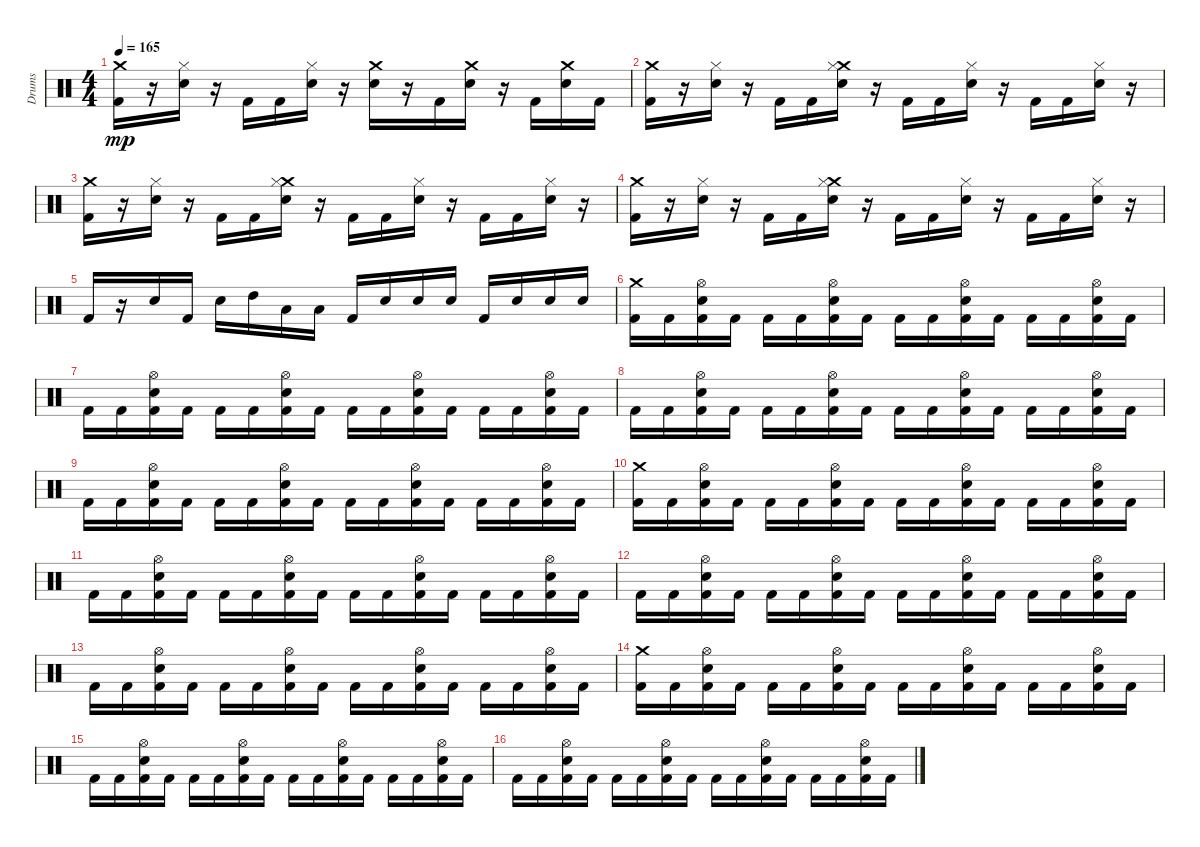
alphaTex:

\track ("Drums" "Drums") {instrument percussion}
\staff {score}
\articulation defaults
\ts (4 4)
\tempo 165
\clef neutral
\ks c
("Crash medium (hit)" "Kick (hit) 2").16{dy mp} r.16 ("Hi-Hat (closed)" "Electric Snare (hit)").16 r.16 "Kick (hit) 2".16 "Kick (hit) 2".16 ("Electric Snare (hit)" "Hi-Hat (closed)").16 r.16 ("Electric Snare (hit)" "Crash medium (hit)").16 r.16 "Kick (hit) 2".16 ("Crash medium (hit)" "Electric Snare (hit)").16 r.16 "Kick (hit) 2".16 ("Electric Snare (hit)" "Crash medium (hit)").16 "Kick (hit) 2".16 |
("Kick (hit) 2" "Crash medium (hit)").16 r.16 ("Hi-Hat (closed)" "Electric Snare (hit)").16 r.16 "Kick (hit) 2".16 "Kick (hit) 2".16 ("Crash medium (hit)" "Electric Snare (hit)" "Hi-Hat (closed)").16 r.16 "Kick (hit) 2".16 "Kick (hit) 2".16 ("Electric Snare (hit)" "Hi-Hat (closed)").16 r.16 "Kick (hit) 2".16 "Kick (hit) 2".16 ("Hi-Hat (closed)" "Electric Snare (hit)").16 r.16 |
("Crash medium (hit)" "Kick (hit) 2").16 r.16 ("Electric Snare (hit)" "Hi-Hat (closed)").16 r.16 "Kick (hit) 2".16 "Kick (hit) 2".16 ("Electric Snare (hit)" "Crash medium (hit)" "Hi-Hat (closed)").16 r.16 "Kick (hit) 2".16 "Kick (hit) 2".16 ("Hi-Hat (closed)" "Electric Snare (hit)").16 r.16 "Kick (hit) 2".16 "Kick (hit) 2".16 ("Hi-Hat (closed)" "Electric Snare (hit)").16 r.16 |
("Crash medium (hit)" "Kick (hit) 2").16 r.16 ("Hi-Hat (closed)" "Electric Snare (hit)").16 r.16 "Kick (hit) 2".16 "Kick (hit) 2".16 ("Crash medium (hit)" "Hi-Hat (closed)" "Electric Snare (hit)").16 r.16 "Kick (hit) 2".16 "Kick (hit) 2".16 ("Electric Snare (hit)" "Hi-Hat (closed)").16 r.16 "Kick (hit) 2".16 "Kick (hit) 2".16 ("Hi-Hat (closed)" "Electric Snare (hit)").16 r.16 |
"Kick (hit) 2".16 r.16 "Electric Snare (hit)".16 "Kick (hit) 2".16 "Electric Snare (hit)".16 "High Tom (hit)".16 "Low Tom (hit)".16 "Low Floor Tom (hit)".16 "Kick (hit) 2".16 "Electric Snare (hit)".16 "Electric Snare (hit)".16 "Electric Snare (hit)".16 "Kick (hit) 2".16 "Electric Snare (hit)".16 "Electric Snare (hit)".16 "Electric Snare (hit)".16 |
("Kick (hit) 2" "Crash medium (hit)").16 "Kick (hit) 2".16 ("Kick (hit) 2" "Electric Snare (hit)" "Hi-Hat (open)").16 "Kick (hit) 2".16 "Kick (hit) 2".16 "Kick (hit) 2".16 ("Kick (hit) 2" "Hi-Hat (open)" "Electric Snare (hit)").16 "Kick (hit) 2".16 "Kick (hit) 2".16 "Kick (hit) 2".16 ("Hi-Hat (open)" "Kick (hit) 2" "Electric Snare (hit)").16 "Kick (hit) 2".16 "Kick (hit) 2".16 "Kick (hit) 2".16 ("Hi-Hat (open)" "Electric Snare (hit)" "Kick (hit) 2").16 "Kick (hit) 2".16 |
"Kick (hit) 2".16 "Kick (hit) 2".16 ("Hi-Hat (open)" "Kick (hit) 2" "Electric Snare (hit)").16 "Kick (hit) 2".16 "Kick (hit) 2".16 "Kick (hit) 2".16 ("Electric Snare (hit)" "Kick (hit) 2" "Hi-Hat (open)").16 "Kick (hit) 2".16 "Kick (hit) 2".16 "Kick (hit) 2".16 ("Kick (hit) 2" "Hi-Hat (open)" "Electric Snare (hit)").16 "Kick (hit) 2".16 "Kick (hit) 2".16 "Kick (hit) 2".16 ("Kick (hit) 2" "Hi-Hat (open)" "Electric Snare (hit)").16 "Kick (hit) 2".16 |
"Kick (hit) 2".16 "Kick (hit) 2".16 ("Kick (hit) 2" "Electric Snare (hit)" "Hi-Hat (open)").16 "Kick (hit) 2".16 "Kick (hit) 2".16 "Kick (hit) 2".16 ("Hi-Hat (open)" "Kick (hit) 2" "Electric Snare (hit)").16 "Kick (hit) 2".16 "Kick (hit) 2".16 "Kick (hit) 2".16 ("Kick (hit) 2" "Electric Snare (hit)" "Hi-Hat (open)").16 "Kick (hit) 2".16 "Kick (hit) 2".16 "Kick (hit) 2".16 ("Kick (hit) 2" "Electric Snare (hit)" "Hi-Hat (open)").16 "Kick (hit) 2".16 |
"Kick (hit) 2".16 "Kick (hit) 2".16 ("Hi-Hat (open)" "Electric Snare (hit)" "Kick (hit) 2").16 "Kick (hit) 2".16 "Kick (hit) 2".16 "Kick (hit) 2".16 ("Kick (hit) 2" "Hi-Hat (open)" "Electric Snare (hit)").16 "Kick (hit) 2".16 "Kick (hit) 2".16 "Kick (hit) 2".16 ("Kick (hit) 2" "Electric Snare (hit)" "Hi-Hat (open)").16 "Kick (hit) 2".16 "Kick (hit) 2".16 "Kick (hit) 2".16 ("Hi-Hat (open)" "Kick (hit) 2" "Electric Snare (hit)").16 "Kick (hit) 2".16 |
("Kick (hit) 2" "Crash medium (hit)").16 "Kick (hit) 2".16 ("Electric Snare (hit)" "Kick (hit) 2" "Hi-Hat (open)").16 "Kick (hit) 2".16 "Kick (hit) 2".16 "Kick (hit) 2".16 ("Kick (hit) 2" "Hi-Hat (open)" "Electric Snare (hit)").16 "Kick (hit) 2".16 "Kick (hit) 2".16 "Kick (hit) 2".16 ("Electric Snare (hit)" "Kick (hit) 2" "Hi-Hat (open)").16 "Kick (hit) 2".16 "Kick (hit) 2".16 "Kick (hit) 2".16 ("Kick (hit) 2" "Hi-Hat (open)" "Electric Snare (hit)").16 "Kick (hit) 2".16 |
"Kick (hit) 2".16 "Kick (hit) 2".16 ("Electric Snare (hit)" "Kick (hit) 2" "Hi-Hat (open)").16 "Kick (hit) 2".16 "Kick (hit) 2".16 "Kick (hit) 2".16 ("Hi-Hat (open)" "Electric Snare (hit)" "Kick (hit) 2").16 "Kick (hit) 2".16 "Kick (hit) 2".16 "Kick (hit) 2".16 ("Electric Snare (hit)" "Hi-Hat (open)" "Kick (hit) 2").16 "Kick (hit) 2".16 "Kick (hit) 2".16 "Kick (hit) 2".16 ("Kick (hit) 2" "Hi-Hat (open)" "Electric Snare (hit)").16 "Kick (hit) 2".16 |
"Kick (hit) 2".16 "Kick (hit) 2".16 ("Hi-Hat (open)" "Kick (hit) 2" "Electric Snare (hit)").16 "Kick (hit) 2".16 "Kick (hit) 2".16 "Kick (hit) 2".16 ("Kick (hit) 2" "Hi-Hat (open)" "Electric Snare (hit)").16 "Kick (hit) 2".16 "Kick (hit) 2".16 "Kick (hit) 2".16 ("Kick (hit) 2" "Hi-Hat (open)" "Electric Snare (hit)").16 "Kick (hit) 2".16 "Kick (hit) 2".16 "Kick (hit) 2".16 ("Hi-Hat (open)" "Electric Snare (hit)" "Kick (hit) 2").16 "Kick (hit) 2".16 |
"Kick (hit) 2".16 "Kick (hit) 2".16 ("Electric Snare (hit)" "Kick (hit) 2" "Hi-Hat (open)").16 "Kick (hit) 2".16 "Kick (hit) 2".16 "Kick (hit) 2".16 ("Hi-Hat (open)" "Electric Snare (hit)" "Kick (hit) 2").16 "Kick (hit) 2".16 "Kick (hit) 2".16 "Kick (hit) 2".16 ("Kick (hit) 2" "Electric Snare (hit)" "Hi-Hat (open)").16 "Kick (hit) 2".16 "Kick (hit) 2".16 "Kick (hit) 2".16 ("Kick (hit) 2" "Hi-Hat (open)" "Electric Snare (hit)").16 "Kick (hit) 2".16 |
("Crash medium (hit)" "Kick (hit) 2").16 "Kick (hit) 2".16 ("Electric Snare (hit)" "Kick (hit) 2" "Hi-Hat (open)").16 "Kick (hit) 2".16 "Kick (hit) 2".16 "Kick (hit) 2".16 ("Electric Snare (hit)" "Hi-Hat (open)" "Kick (hit) 2").16 "Kick (hit) 2".16 "Kick (hit) 2".16 "Kick (hit) 2".16 ("Kick (hit) 2" "Electric Snare (hit)" "Hi-Hat (open)").16 "Kick (hit) 2".16 "Kick (hit) 2".16 "Kick (hit) 2".16 ("Electric Snare (hit)" "Kick (hit) 2" "Hi-Hat (open)").16 "Kick (hit) 2".16 |
"Kick (hit) 2".16 "Kick (hit) 2".16 ("Electric Snare (hit)" "Kick (hit) 2" "Hi-Hat (open)").16 "Kick (hit) 2".16 "Kick (hit) 2".16 "Kick (hit) 2".16 ("Electric Snare (hit)" "Hi-Hat (open)" "Kick (hit) 2").16 "Kick (hit) 2".16 "Kick (hit) 2".16 "Kick (hit) 2".16 ("Hi-Hat (open)" "Electric Snare (hit)" "Kick (hit) 2").16 "Kick (hit) 2".16 "Kick (hit) 2".16 "Kick (hit) 2".16 ("Electric Snare (hit)" "Hi-Hat (open)" "Kick (hit) 2").16 "Kick (hit) 2".16 |
"Kick (hit) 2".16 "Kick (hit) 2".16 ("Kick (hit) 2" "Electric Snare (hit)" "Hi-Hat (open)").16 "Kick (hit) 2".16 "Kick (hit) 2".16 "Kick (hit) 2".16 ("Kick (hit) 2" "Hi-Hat (open)" "Electric Snare (hit)").16 "Kick (hit) 2".16 "Kick (hit) 2".16 "Kick (hit) 2".16 ("Electric Snare (hit)" "Kick (hit) 2" "Hi-Hat (open)").16 "Kick (hit) 2".16 "Kick (hit) 2".16 "Kick (hit) 2".16 ("Electric Snare (hit)" "Kick (hit) 2" "Hi-Hat (open)").16 "Kick (hit) 2".16
